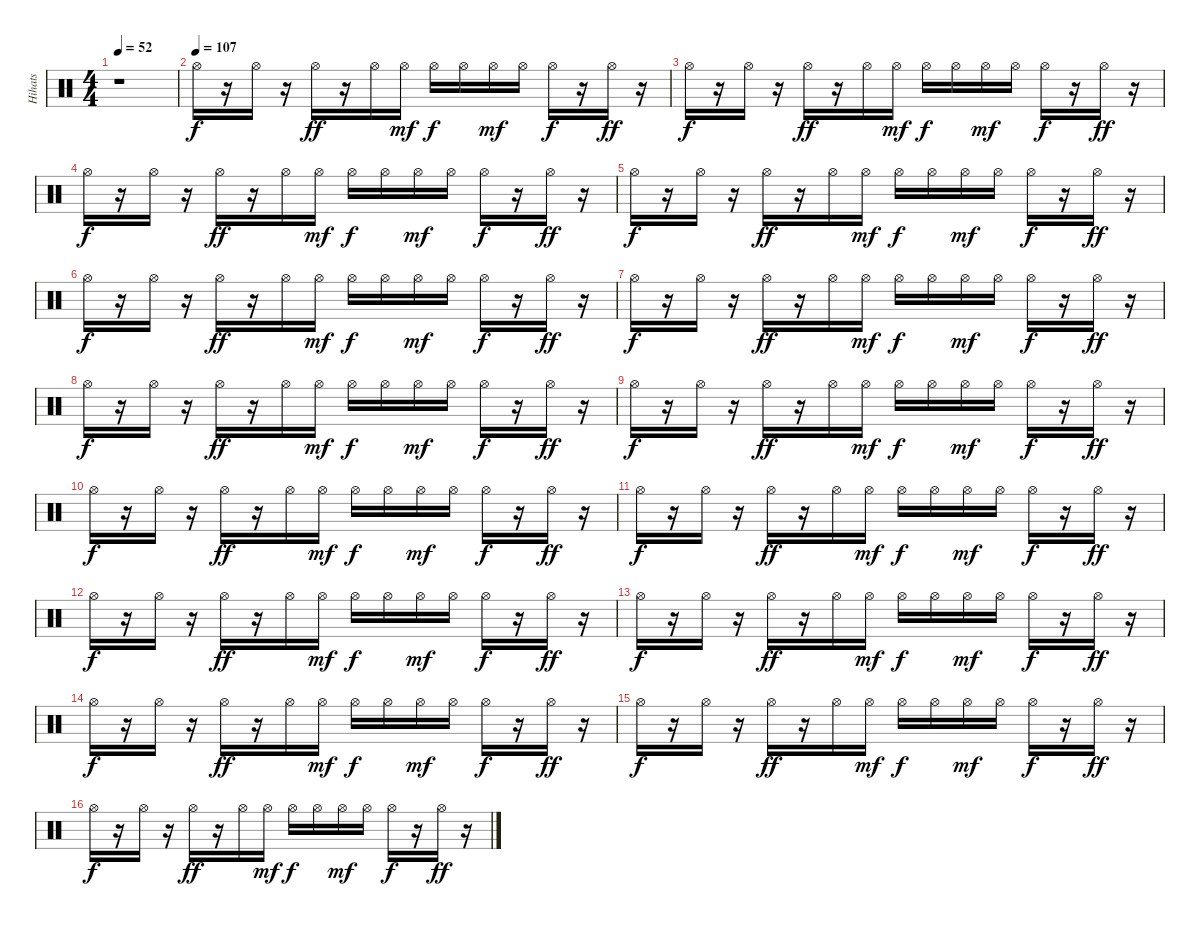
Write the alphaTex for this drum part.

\track ("Hihats" "Hihats") {instrument percussion}
\staff {score}
\articulation defaults
\ts (4 4)
\tempo 52
\clef neutral
\ks c
r.1{dy f} |
\tempo (107)
"Hi-Hat (open)".16 r.16 "Hi-Hat (open)".16 r.16 "Hi-Hat (open)".16{dy ff} r.16 "Hi-Hat (open)".16 "Hi-Hat (open)".16{dy mf} "Hi-Hat (open)".16{dy f} "Hi-Hat (open)".16 "Hi-Hat (open)".16{dy mf} "Hi-Hat (open)".16 "Hi-Hat (open)".16{dy f} r.16 "Hi-Hat (open)".16{dy ff} r.16 |
"Hi-Hat (open)".16{dy f} r.16 "Hi-Hat (open)".16 r.16 "Hi-Hat (open)".16{dy ff} r.16 "Hi-Hat (open)".16 "Hi-Hat (open)".16{dy mf} "Hi-Hat (open)".16{dy f} "Hi-Hat (open)".16 "Hi-Hat (open)".16{dy mf} "Hi-Hat (open)".16 "Hi-Hat (open)".16{dy f} r.16 "Hi-Hat (open)".16{dy ff} r.16 |
"Hi-Hat (open)".16{dy f} r.16 "Hi-Hat (open)".16 r.16 "Hi-Hat (open)".16{dy ff} r.16 "Hi-Hat (open)".16 "Hi-Hat (open)".16{dy mf} "Hi-Hat (open)".16{dy f} "Hi-Hat (open)".16 "Hi-Hat (open)".16{dy mf} "Hi-Hat (open)".16 "Hi-Hat (open)".16{dy f} r.16 "Hi-Hat (open)".16{dy ff} r.16 |
"Hi-Hat (open)".16{dy f} r.16 "Hi-Hat (open)".16 r.16 "Hi-Hat (open)".16{dy ff} r.16 "Hi-Hat (open)".16 "Hi-Hat (open)".16{dy mf} "Hi-Hat (open)".16{dy f} "Hi-Hat (open)".16 "Hi-Hat (open)".16{dy mf} "Hi-Hat (open)".16 "Hi-Hat (open)".16{dy f} r.16 "Hi-Hat (open)".16{dy ff} r.16 |
"Hi-Hat (open)".16{dy f} r.16 "Hi-Hat (open)".16 r.16 "Hi-Hat (open)".16{dy ff} r.16 "Hi-Hat (open)".16 "Hi-Hat (open)".16{dy mf} "Hi-Hat (open)".16{dy f} "Hi-Hat (open)".16 "Hi-Hat (open)".16{dy mf} "Hi-Hat (open)".16 "Hi-Hat (open)".16{dy f} r.16 "Hi-Hat (open)".16{dy ff} r.16 |
"Hi-Hat (open)".16{dy f} r.16 "Hi-Hat (open)".16 r.16 "Hi-Hat (open)".16{dy ff} r.16 "Hi-Hat (open)".16 "Hi-Hat (open)".16{dy mf} "Hi-Hat (open)".16{dy f} "Hi-Hat (open)".16 "Hi-Hat (open)".16{dy mf} "Hi-Hat (open)".16 "Hi-Hat (open)".16{dy f} r.16 "Hi-Hat (open)".16{dy ff} r.16 |
"Hi-Hat (open)".16{dy f} r.16 "Hi-Hat (open)".16 r.16 "Hi-Hat (open)".16{dy ff} r.16 "Hi-Hat (open)".16 "Hi-Hat (open)".16{dy mf} "Hi-Hat (open)".16{dy f} "Hi-Hat (open)".16 "Hi-Hat (open)".16{dy mf} "Hi-Hat (open)".16 "Hi-Hat (open)".16{dy f} r.16 "Hi-Hat (open)".16{dy ff} r.16 |
"Hi-Hat (open)".16{dy f} r.16 "Hi-Hat (open)".16 r.16 "Hi-Hat (open)".16{dy ff} r.16 "Hi-Hat (open)".16 "Hi-Hat (open)".16{dy mf} "Hi-Hat (open)".16{dy f} "Hi-Hat (open)".16 "Hi-Hat (open)".16{dy mf} "Hi-Hat (open)".16 "Hi-Hat (open)".16{dy f} r.16 "Hi-Hat (open)".16{dy ff} r.16 |
"Hi-Hat (open)".16{dy f} r.16 "Hi-Hat (open)".16 r.16 "Hi-Hat (open)".16{dy ff} r.16 "Hi-Hat (open)".16 "Hi-Hat (open)".16{dy mf} "Hi-Hat (open)".16{dy f} "Hi-Hat (open)".16 "Hi-Hat (open)".16{dy mf} "Hi-Hat (open)".16 "Hi-Hat (open)".16{dy f} r.16 "Hi-Hat (open)".16{dy ff} r.16 |
"Hi-Hat (open)".16{dy f} r.16 "Hi-Hat (open)".16 r.16 "Hi-Hat (open)".16{dy ff} r.16 "Hi-Hat (open)".16 "Hi-Hat (open)".16{dy mf} "Hi-Hat (open)".16{dy f} "Hi-Hat (open)".16 "Hi-Hat (open)".16{dy mf} "Hi-Hat (open)".16 "Hi-Hat (open)".16{dy f} r.16 "Hi-Hat (open)".16{dy ff} r.16 |
"Hi-Hat (open)".16{dy f} r.16 "Hi-Hat (open)".16 r.16 "Hi-Hat (open)".16{dy ff} r.16 "Hi-Hat (open)".16 "Hi-Hat (open)".16{dy mf} "Hi-Hat (open)".16{dy f} "Hi-Hat (open)".16 "Hi-Hat (open)".16{dy mf} "Hi-Hat (open)".16 "Hi-Hat (open)".16{dy f} r.16 "Hi-Hat (open)".16{dy ff} r.16 |
"Hi-Hat (open)".16{dy f} r.16 "Hi-Hat (open)".16 r.16 "Hi-Hat (open)".16{dy ff} r.16 "Hi-Hat (open)".16 "Hi-Hat (open)".16{dy mf} "Hi-Hat (open)".16{dy f} "Hi-Hat (open)".16 "Hi-Hat (open)".16{dy mf} "Hi-Hat (open)".16 "Hi-Hat (open)".16{dy f} r.16 "Hi-Hat (open)".16{dy ff} r.16 |
"Hi-Hat (open)".16{dy f} r.16 "Hi-Hat (open)".16 r.16 "Hi-Hat (open)".16{dy ff} r.16 "Hi-Hat (open)".16 "Hi-Hat (open)".16{dy mf} "Hi-Hat (open)".16{dy f} "Hi-Hat (open)".16 "Hi-Hat (open)".16{dy mf} "Hi-Hat (open)".16 "Hi-Hat (open)".16{dy f} r.16 "Hi-Hat (open)".16{dy ff} r.16 |
"Hi-Hat (open)".16{dy f} r.16 "Hi-Hat (open)".16 r.16 "Hi-Hat (open)".16{dy ff} r.16 "Hi-Hat (open)".16 "Hi-Hat (open)".16{dy mf} "Hi-Hat (open)".16{dy f} "Hi-Hat (open)".16 "Hi-Hat (open)".16{dy mf} "Hi-Hat (open)".16 "Hi-Hat (open)".16{dy f} r.16 "Hi-Hat (open)".16{dy ff} r.16 |
"Hi-Hat (open)".16{dy f} r.16 "Hi-Hat (open)".16 r.16 "Hi-Hat (open)".16{dy ff} r.16 "Hi-Hat (open)".16 "Hi-Hat (open)".16{dy mf} "Hi-Hat (open)".16{dy f} "Hi-Hat (open)".16 "Hi-Hat (open)".16{dy mf} "Hi-Hat (open)".16 "Hi-Hat (open)".16{dy f} r.16 "Hi-Hat (open)".16{dy ff} r.16
